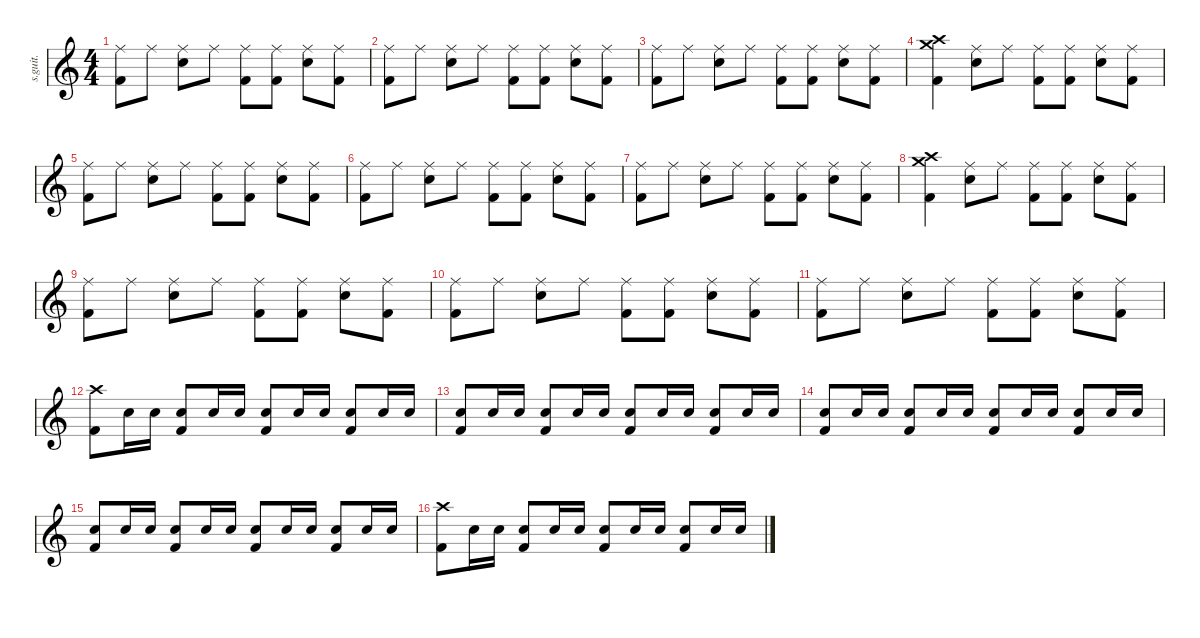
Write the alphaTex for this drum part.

\defaultSystemsLayout 4
\hideDynamics
\bracketExtendMode nobrackets
\track ("Bob Burns (Drums)" "s.guit.") {instrument percussion}
\staff {score}
\articulation defaults
\ts (4 4)
\tempo (150 hide)
\clef g2
\ks c
("Ride (middle)" "Kick (hit) 2").8{lyrics (0 "") lyrics (1 "") lyrics (2 "") lyrics (3 "") lyrics (4 "") dy f} "Ride (middle)".8{lyrics (0 "") lyrics (1 "") lyrics (2 "") lyrics (3 "") lyrics (4 "")} ("Ride (middle)" "Electric Snare (hit)").8{lyrics (0 "") lyrics (1 "") lyrics (2 "") lyrics (3 "") lyrics (4 "")} "Ride (middle)".8{lyrics (0 "") lyrics (1 "") lyrics (2 "") lyrics (3 "") lyrics (4 "")} ("Ride (middle)" "Kick (hit) 2").8{lyrics (0 "") lyrics (1 "") lyrics (2 "") lyrics (3 "") lyrics (4 "")} ("Ride (middle)" "Kick (hit) 2").8{lyrics (0 "") lyrics (1 "") lyrics (2 "") lyrics (3 "") lyrics (4 "")} ("Ride (middle)" "Electric Snare (hit)").8{lyrics (0 "") lyrics (1 "") lyrics (2 "") lyrics (3 "") lyrics (4 "")} ("Ride (middle)" "Kick (hit) 2").8{lyrics (0 "") lyrics (1 "") lyrics (2 "") lyrics (3 "") lyrics (4 "")} |
("Ride (middle)" "Kick (hit) 2").8{lyrics (0 "") lyrics (1 "") lyrics (2 "") lyrics (3 "") lyrics (4 "")} "Ride (middle)".8{lyrics (0 "") lyrics (1 "") lyrics (2 "") lyrics (3 "") lyrics (4 "")} ("Ride (middle)" "Electric Snare (hit)").8{lyrics (0 "") lyrics (1 "") lyrics (2 "") lyrics (3 "") lyrics (4 "")} "Ride (middle)".8{lyrics (0 "") lyrics (1 "") lyrics (2 "") lyrics (3 "") lyrics (4 "")} ("Ride (middle)" "Kick (hit) 2").8{lyrics (0 "") lyrics (1 "") lyrics (2 "") lyrics (3 "") lyrics (4 "")} ("Ride (middle)" "Kick (hit) 2").8{lyrics (0 "") lyrics (1 "") lyrics (2 "") lyrics (3 "") lyrics (4 "")} ("Ride (middle)" "Electric Snare (hit)").8{lyrics (0 "") lyrics (1 "") lyrics (2 "") lyrics (3 "") lyrics (4 "")} ("Ride (middle)" "Kick (hit) 2").8{lyrics (0 "") lyrics (1 "") lyrics (2 "") lyrics (3 "") lyrics (4 "")} |
("Ride (middle)" "Kick (hit) 2").8{lyrics (0 "") lyrics (1 "") lyrics (2 "") lyrics (3 "") lyrics (4 "")} "Ride (middle)".8{lyrics (0 "") lyrics (1 "") lyrics (2 "") lyrics (3 "") lyrics (4 "")} ("Ride (middle)" "Electric Snare (hit)").8{lyrics (0 "") lyrics (1 "") lyrics (2 "") lyrics (3 "") lyrics (4 "")} "Ride (middle)".8{lyrics (0 "") lyrics (1 "") lyrics (2 "") lyrics (3 "") lyrics (4 "")} ("Ride (middle)" "Kick (hit) 2").8{lyrics (0 "") lyrics (1 "") lyrics (2 "") lyrics (3 "") lyrics (4 "")} ("Ride (middle)" "Kick (hit) 2").8{lyrics (0 "") lyrics (1 "") lyrics (2 "") lyrics (3 "") lyrics (4 "")} ("Ride (middle)" "Electric Snare (hit)").8{lyrics (0 "") lyrics (1 "") lyrics (2 "") lyrics (3 "") lyrics (4 "")} ("Ride (middle)" "Kick (hit) 2").8{lyrics (0 "") lyrics (1 "") lyrics (2 "") lyrics (3 "") lyrics (4 "")} |
("Crash high (hit)" "Crash medium (hit)" "Kick (hit) 2").4{lyrics (0 "") lyrics (1 "") lyrics (2 "") lyrics (3 "") lyrics (4 "")} ("Ride (middle)" "Electric Snare (hit)").8{lyrics (0 "") lyrics (1 "") lyrics (2 "") lyrics (3 "") lyrics (4 "")} "Ride (middle)".8{lyrics (0 "") lyrics (1 "") lyrics (2 "") lyrics (3 "") lyrics (4 "")} ("Ride (middle)" "Kick (hit) 2").8{lyrics (0 "") lyrics (1 "") lyrics (2 "") lyrics (3 "") lyrics (4 "")} ("Ride (middle)" "Kick (hit) 2").8{lyrics (0 "") lyrics (1 "") lyrics (2 "") lyrics (3 "") lyrics (4 "")} ("Ride (middle)" "Electric Snare (hit)").8{lyrics (0 "") lyrics (1 "") lyrics (2 "") lyrics (3 "") lyrics (4 "")} ("Ride (middle)" "Kick (hit) 2").8{lyrics (0 "") lyrics (1 "") lyrics (2 "") lyrics (3 "") lyrics (4 "")} |
("Ride (middle)" "Kick (hit) 2").8{lyrics (0 "") lyrics (1 "") lyrics (2 "") lyrics (3 "") lyrics (4 "")} "Ride (middle)".8{lyrics (0 "") lyrics (1 "") lyrics (2 "") lyrics (3 "") lyrics (4 "")} ("Ride (middle)" "Electric Snare (hit)").8{lyrics (0 "") lyrics (1 "") lyrics (2 "") lyrics (3 "") lyrics (4 "")} "Ride (middle)".8{lyrics (0 "") lyrics (1 "") lyrics (2 "") lyrics (3 "") lyrics (4 "")} ("Ride (middle)" "Kick (hit) 2").8{lyrics (0 "") lyrics (1 "") lyrics (2 "") lyrics (3 "") lyrics (4 "")} ("Ride (middle)" "Kick (hit) 2").8{lyrics (0 "") lyrics (1 "") lyrics (2 "") lyrics (3 "") lyrics (4 "")} ("Ride (middle)" "Electric Snare (hit)").8{lyrics (0 "") lyrics (1 "") lyrics (2 "") lyrics (3 "") lyrics (4 "")} ("Ride (middle)" "Kick (hit) 2").8{lyrics (0 "") lyrics (1 "") lyrics (2 "") lyrics (3 "") lyrics (4 "")} |
("Ride (middle)" "Kick (hit) 2").8{lyrics (0 "") lyrics (1 "") lyrics (2 "") lyrics (3 "") lyrics (4 "")} "Ride (middle)".8{lyrics (0 "") lyrics (1 "") lyrics (2 "") lyrics (3 "") lyrics (4 "")} ("Ride (middle)" "Electric Snare (hit)").8{lyrics (0 "") lyrics (1 "") lyrics (2 "") lyrics (3 "") lyrics (4 "")} "Ride (middle)".8{lyrics (0 "") lyrics (1 "") lyrics (2 "") lyrics (3 "") lyrics (4 "")} ("Ride (middle)" "Kick (hit) 2").8{lyrics (0 "") lyrics (1 "") lyrics (2 "") lyrics (3 "") lyrics (4 "")} ("Ride (middle)" "Kick (hit) 2").8{lyrics (0 "") lyrics (1 "") lyrics (2 "") lyrics (3 "") lyrics (4 "")} ("Ride (middle)" "Electric Snare (hit)").8{lyrics (0 "") lyrics (1 "") lyrics (2 "") lyrics (3 "") lyrics (4 "")} ("Ride (middle)" "Kick (hit) 2").8{lyrics (0 "") lyrics (1 "") lyrics (2 "") lyrics (3 "") lyrics (4 "")} |
("Ride (middle)" "Kick (hit) 2").8{lyrics (0 "") lyrics (1 "") lyrics (2 "") lyrics (3 "") lyrics (4 "")} "Ride (middle)".8{lyrics (0 "") lyrics (1 "") lyrics (2 "") lyrics (3 "") lyrics (4 "")} ("Ride (middle)" "Electric Snare (hit)").8{lyrics (0 "") lyrics (1 "") lyrics (2 "") lyrics (3 "") lyrics (4 "")} "Ride (middle)".8{lyrics (0 "") lyrics (1 "") lyrics (2 "") lyrics (3 "") lyrics (4 "")} ("Ride (middle)" "Kick (hit) 2").8{lyrics (0 "") lyrics (1 "") lyrics (2 "") lyrics (3 "") lyrics (4 "")} ("Ride (middle)" "Kick (hit) 2").8{lyrics (0 "") lyrics (1 "") lyrics (2 "") lyrics (3 "") lyrics (4 "")} ("Ride (middle)" "Electric Snare (hit)").8{lyrics (0 "") lyrics (1 "") lyrics (2 "") lyrics (3 "") lyrics (4 "")} ("Ride (middle)" "Kick (hit) 2").8{lyrics (0 "") lyrics (1 "") lyrics (2 "") lyrics (3 "") lyrics (4 "")} |
("Crash high (hit)" "Crash medium (hit)" "Kick (hit) 2").4{lyrics (0 "") lyrics (1 "") lyrics (2 "") lyrics (3 "") lyrics (4 "")} ("Ride (middle)" "Electric Snare (hit)").8{lyrics (0 "") lyrics (1 "") lyrics (2 "") lyrics (3 "") lyrics (4 "")} "Ride (middle)".8{lyrics (0 "") lyrics (1 "") lyrics (2 "") lyrics (3 "") lyrics (4 "")} ("Ride (middle)" "Kick (hit) 2").8{lyrics (0 "") lyrics (1 "") lyrics (2 "") lyrics (3 "") lyrics (4 "")} ("Ride (middle)" "Kick (hit) 2").8{lyrics (0 "") lyrics (1 "") lyrics (2 "") lyrics (3 "") lyrics (4 "")} ("Ride (middle)" "Electric Snare (hit)").8{lyrics (0 "") lyrics (1 "") lyrics (2 "") lyrics (3 "") lyrics (4 "")} ("Ride (middle)" "Kick (hit) 2").8{lyrics (0 "") lyrics (1 "") lyrics (2 "") lyrics (3 "") lyrics (4 "")} |
("Ride (middle)" "Kick (hit) 2").8{lyrics (0 "") lyrics (1 "") lyrics (2 "") lyrics (3 "") lyrics (4 "")} "Ride (middle)".8{lyrics (0 "") lyrics (1 "") lyrics (2 "") lyrics (3 "") lyrics (4 "")} ("Ride (middle)" "Electric Snare (hit)").8{lyrics (0 "") lyrics (1 "") lyrics (2 "") lyrics (3 "") lyrics (4 "")} "Ride (middle)".8{lyrics (0 "") lyrics (1 "") lyrics (2 "") lyrics (3 "") lyrics (4 "")} ("Ride (middle)" "Kick (hit) 2").8{lyrics (0 "") lyrics (1 "") lyrics (2 "") lyrics (3 "") lyrics (4 "")} ("Ride (middle)" "Kick (hit) 2").8{lyrics (0 "") lyrics (1 "") lyrics (2 "") lyrics (3 "") lyrics (4 "")} ("Ride (middle)" "Electric Snare (hit)").8{lyrics (0 "") lyrics (1 "") lyrics (2 "") lyrics (3 "") lyrics (4 "")} ("Ride (middle)" "Kick (hit) 2").8{lyrics (0 "") lyrics (1 "") lyrics (2 "") lyrics (3 "") lyrics (4 "")} |
("Ride (middle)" "Kick (hit) 2").8{lyrics (0 "") lyrics (1 "") lyrics (2 "") lyrics (3 "") lyrics (4 "")} "Ride (middle)".8{lyrics (0 "") lyrics (1 "") lyrics (2 "") lyrics (3 "") lyrics (4 "")} ("Ride (middle)" "Electric Snare (hit)").8{lyrics (0 "") lyrics (1 "") lyrics (2 "") lyrics (3 "") lyrics (4 "")} "Ride (middle)".8{lyrics (0 "") lyrics (1 "") lyrics (2 "") lyrics (3 "") lyrics (4 "")} ("Ride (middle)" "Kick (hit) 2").8{lyrics (0 "") lyrics (1 "") lyrics (2 "") lyrics (3 "") lyrics (4 "")} ("Ride (middle)" "Kick (hit) 2").8{lyrics (0 "") lyrics (1 "") lyrics (2 "") lyrics (3 "") lyrics (4 "")} ("Ride (middle)" "Electric Snare (hit)").8{lyrics (0 "") lyrics (1 "") lyrics (2 "") lyrics (3 "") lyrics (4 "")} ("Ride (middle)" "Kick (hit) 2").8{lyrics (0 "") lyrics (1 "") lyrics (2 "") lyrics (3 "") lyrics (4 "")} |
("Ride (middle)" "Kick (hit) 2").8{lyrics (0 "") lyrics (1 "") lyrics (2 "") lyrics (3 "") lyrics (4 "")} "Ride (middle)".8{lyrics (0 "") lyrics (1 "") lyrics (2 "") lyrics (3 "") lyrics (4 "")} ("Ride (middle)" "Electric Snare (hit)").8{lyrics (0 "") lyrics (1 "") lyrics (2 "") lyrics (3 "") lyrics (4 "")} "Ride (middle)".8{lyrics (0 "") lyrics (1 "") lyrics (2 "") lyrics (3 "") lyrics (4 "")} ("Ride (middle)" "Kick (hit) 2").8{lyrics (0 "") lyrics (1 "") lyrics (2 "") lyrics (3 "") lyrics (4 "")} ("Ride (middle)" "Kick (hit) 2").8{lyrics (0 "") lyrics (1 "") lyrics (2 "") lyrics (3 "") lyrics (4 "")} ("Ride (middle)" "Electric Snare (hit)").8{lyrics (0 "") lyrics (1 "") lyrics (2 "") lyrics (3 "") lyrics (4 "")} ("Ride (middle)" "Kick (hit) 2").8{lyrics (0 "") lyrics (1 "") lyrics (2 "") lyrics (3 "") lyrics (4 "")} |
("Crash high (hit)" "Kick (hit) 2").8{lyrics (0 "") lyrics (1 "") lyrics (2 "") lyrics (3 "") lyrics (4 "")} "Electric Snare (hit)".16{lyrics (0 "") lyrics (1 "") lyrics (2 "") lyrics (3 "") lyrics (4 "")} "Electric Snare (hit)".16{lyrics (0 "") lyrics (1 "") lyrics (2 "") lyrics (3 "") lyrics (4 "")} ("Electric Snare (hit)" "Kick (hit) 2").8{lyrics (0 "") lyrics (1 "") lyrics (2 "") lyrics (3 "") lyrics (4 "")} "Electric Snare (hit)".16{lyrics (0 "") lyrics (1 "") lyrics (2 "") lyrics (3 "") lyrics (4 "")} "Electric Snare (hit)".16{lyrics (0 "") lyrics (1 "") lyrics (2 "") lyrics (3 "") lyrics (4 "")} ("Electric Snare (hit)" "Kick (hit) 2").8{lyrics (0 "") lyrics (1 "") lyrics (2 "") lyrics (3 "") lyrics (4 "")} "Electric Snare (hit)".16{lyrics (0 "") lyrics (1 "") lyrics (2 "") lyrics (3 "") lyrics (4 "")} "Electric Snare (hit)".16{lyrics (0 "") lyrics (1 "") lyrics (2 "") lyrics (3 "") lyrics (4 "")} ("Electric Snare (hit)" "Kick (hit) 2").8{lyrics (0 "") lyrics (1 "") lyrics (2 "") lyrics (3 "") lyrics (4 "")} "Electric Snare (hit)".16{lyrics (0 "") lyrics (1 "") lyrics (2 "") lyrics (3 "") lyrics (4 "")} "Electric Snare (hit)".16{lyrics (0 "") lyrics (1 "") lyrics (2 "") lyrics (3 "") lyrics (4 "")} |
("Electric Snare (hit)" "Kick (hit) 2").8{lyrics (0 "") lyrics (1 "") lyrics (2 "") lyrics (3 "") lyrics (4 "")} "Electric Snare (hit)".16{lyrics (0 "") lyrics (1 "") lyrics (2 "") lyrics (3 "") lyrics (4 "")} "Electric Snare (hit)".16{lyrics (0 "") lyrics (1 "") lyrics (2 "") lyrics (3 "") lyrics (4 "")} ("Electric Snare (hit)" "Kick (hit) 2").8{lyrics (0 "") lyrics (1 "") lyrics (2 "") lyrics (3 "") lyrics (4 "")} "Electric Snare (hit)".16{lyrics (0 "") lyrics (1 "") lyrics (2 "") lyrics (3 "") lyrics (4 "")} "Electric Snare (hit)".16{lyrics (0 "") lyrics (1 "") lyrics (2 "") lyrics (3 "") lyrics (4 "")} ("Electric Snare (hit)" "Kick (hit) 2").8{lyrics (0 "") lyrics (1 "") lyrics (2 "") lyrics (3 "") lyrics (4 "")} "Electric Snare (hit)".16{lyrics (0 "") lyrics (1 "") lyrics (2 "") lyrics (3 "") lyrics (4 "")} "Electric Snare (hit)".16{lyrics (0 "") lyrics (1 "") lyrics (2 "") lyrics (3 "") lyrics (4 "")} ("Electric Snare (hit)" "Kick (hit) 2").8{lyrics (0 "") lyrics (1 "") lyrics (2 "") lyrics (3 "") lyrics (4 "")} "Electric Snare (hit)".16{lyrics (0 "") lyrics (1 "") lyrics (2 "") lyrics (3 "") lyrics (4 "")} "Electric Snare (hit)".16{lyrics (0 "") lyrics (1 "") lyrics (2 "") lyrics (3 "") lyrics (4 "")} |
("Electric Snare (hit)" "Kick (hit) 2").8{lyrics (0 "") lyrics (1 "") lyrics (2 "") lyrics (3 "") lyrics (4 "")} "Electric Snare (hit)".16{lyrics (0 "") lyrics (1 "") lyrics (2 "") lyrics (3 "") lyrics (4 "")} "Electric Snare (hit)".16{lyrics (0 "") lyrics (1 "") lyrics (2 "") lyrics (3 "") lyrics (4 "")} ("Electric Snare (hit)" "Kick (hit) 2").8{lyrics (0 "") lyrics (1 "") lyrics (2 "") lyrics (3 "") lyrics (4 "")} "Electric Snare (hit)".16{lyrics (0 "") lyrics (1 "") lyrics (2 "") lyrics (3 "") lyrics (4 "")} "Electric Snare (hit)".16{lyrics (0 "") lyrics (1 "") lyrics (2 "") lyrics (3 "") lyrics (4 "")} ("Electric Snare (hit)" "Kick (hit) 2").8{lyrics (0 "") lyrics (1 "") lyrics (2 "") lyrics (3 "") lyrics (4 "")} "Electric Snare (hit)".16{lyrics (0 "") lyrics (1 "") lyrics (2 "") lyrics (3 "") lyrics (4 "")} "Electric Snare (hit)".16{lyrics (0 "") lyrics (1 "") lyrics (2 "") lyrics (3 "") lyrics (4 "")} ("Electric Snare (hit)" "Kick (hit) 2").8{lyrics (0 "") lyrics (1 "") lyrics (2 "") lyrics (3 "") lyrics (4 "")} "Electric Snare (hit)".16{lyrics (0 "") lyrics (1 "") lyrics (2 "") lyrics (3 "") lyrics (4 "")} "Electric Snare (hit)".16{lyrics (0 "") lyrics (1 "") lyrics (2 "") lyrics (3 "") lyrics (4 "")} |
("Electric Snare (hit)" "Kick (hit) 2").8{lyrics (0 "") lyrics (1 "") lyrics (2 "") lyrics (3 "") lyrics (4 "")} "Electric Snare (hit)".16{lyrics (0 "") lyrics (1 "") lyrics (2 "") lyrics (3 "") lyrics (4 "")} "Electric Snare (hit)".16{lyrics (0 "") lyrics (1 "") lyrics (2 "") lyrics (3 "") lyrics (4 "")} ("Electric Snare (hit)" "Kick (hit) 2").8{lyrics (0 "") lyrics (1 "") lyrics (2 "") lyrics (3 "") lyrics (4 "")} "Electric Snare (hit)".16{lyrics (0 "") lyrics (1 "") lyrics (2 "") lyrics (3 "") lyrics (4 "")} "Electric Snare (hit)".16{lyrics (0 "") lyrics (1 "") lyrics (2 "") lyrics (3 "") lyrics (4 "")} ("Electric Snare (hit)" "Kick (hit) 2").8{lyrics (0 "") lyrics (1 "") lyrics (2 "") lyrics (3 "") lyrics (4 "")} "Electric Snare (hit)".16{lyrics (0 "") lyrics (1 "") lyrics (2 "") lyrics (3 "") lyrics (4 "")} "Electric Snare (hit)".16{lyrics (0 "") lyrics (1 "") lyrics (2 "") lyrics (3 "") lyrics (4 "")} ("Electric Snare (hit)" "Kick (hit) 2").8{lyrics (0 "") lyrics (1 "") lyrics (2 "") lyrics (3 "") lyrics (4 "")} "Electric Snare (hit)".16{lyrics (0 "") lyrics (1 "") lyrics (2 "") lyrics (3 "") lyrics (4 "")} "Electric Snare (hit)".16{lyrics (0 "") lyrics (1 "") lyrics (2 "") lyrics (3 "") lyrics (4 "")} |
("Crash high (hit)" "Kick (hit) 2").8{lyrics (0 "") lyrics (1 "") lyrics (2 "") lyrics (3 "") lyrics (4 "")} "Electric Snare (hit)".16{lyrics (0 "") lyrics (1 "") lyrics (2 "") lyrics (3 "") lyrics (4 "")} "Electric Snare (hit)".16{lyrics (0 "") lyrics (1 "") lyrics (2 "") lyrics (3 "") lyrics (4 "")} ("Electric Snare (hit)" "Kick (hit) 2").8{lyrics (0 "") lyrics (1 "") lyrics (2 "") lyrics (3 "") lyrics (4 "")} "Electric Snare (hit)".16{lyrics (0 "") lyrics (1 "") lyrics (2 "") lyrics (3 "") lyrics (4 "")} "Electric Snare (hit)".16{lyrics (0 "") lyrics (1 "") lyrics (2 "") lyrics (3 "") lyrics (4 "")} ("Electric Snare (hit)" "Kick (hit) 2").8{lyrics (0 "") lyrics (1 "") lyrics (2 "") lyrics (3 "") lyrics (4 "")} "Electric Snare (hit)".16{lyrics (0 "") lyrics (1 "") lyrics (2 "") lyrics (3 "") lyrics (4 "")} "Electric Snare (hit)".16{lyrics (0 "") lyrics (1 "") lyrics (2 "") lyrics (3 "") lyrics (4 "")} ("Electric Snare (hit)" "Kick (hit) 2").8{lyrics (0 "") lyrics (1 "") lyrics (2 "") lyrics (3 "") lyrics (4 "")} "Electric Snare (hit)".16{lyrics (0 "") lyrics (1 "") lyrics (2 "") lyrics (3 "") lyrics (4 "")} "Electric Snare (hit)".16{lyrics (0 "") lyrics (1 "") lyrics (2 "") lyrics (3 "") lyrics (4 "")}
